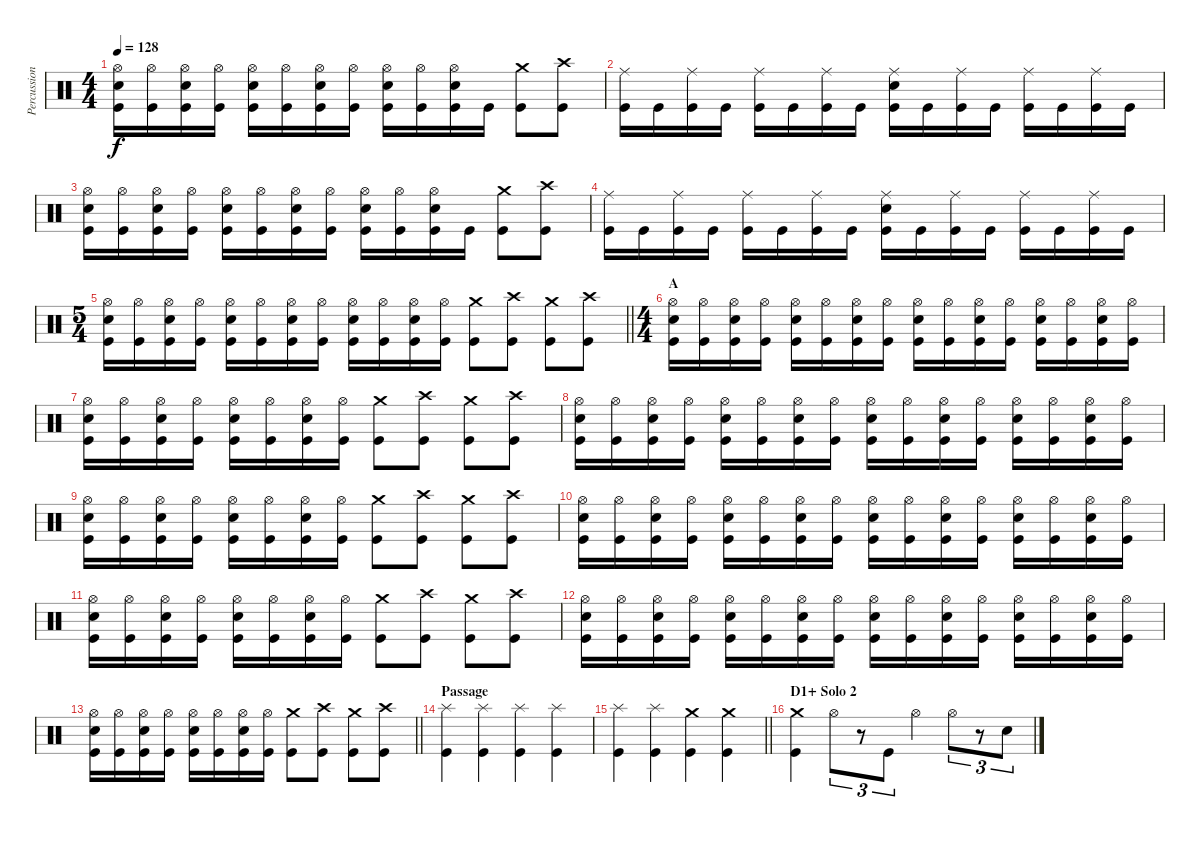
\track ("Percussion" "Percussion") {instrument percussion}
\staff {score}
\articulation defaults
\ts (4 4)
\tempo 128
\clef neutral
\ks c
("Kick (hit)" "Snare (hit) 2" "Hi-Hat (open)").16{dy f} ("Kick (hit)" "Hi-Hat (open)").16 ("Kick (hit)" "Snare (hit) 2" "Hi-Hat (open)").16 ("Kick (hit)" "Hi-Hat (open)").16 ("Kick (hit)" "Snare (hit) 2" "Hi-Hat (open)").16 ("Kick (hit)" "Hi-Hat (open)").16 ("Kick (hit)" "Snare (hit) 2" "Hi-Hat (open)").16 ("Kick (hit)" "Hi-Hat (open)").16 ("Kick (hit)" "Snare (hit) 2" "Hi-Hat (open)").16 ("Kick (hit)" "Hi-Hat (open)").16 ("Kick (hit)" "Snare (hit) 2" "Hi-Hat (open)").16 "Kick (hit)".16 ("Kick (hit)" "Crash medium (hit)").8 ("Kick (hit)" "Crash high (hit)").8 |
("Kick (hit)" "Ride (middle)").16 "Kick (hit)".16 ("Kick (hit)" "Ride (middle)").16 "Kick (hit)".16 ("Kick (hit)" "Ride (middle)").16 "Kick (hit)".16 ("Kick (hit)" "Ride (middle)").16 "Kick (hit)".16 ("Kick (hit)" "Snare (hit) 2" "Ride (middle)").16 "Kick (hit)".16 ("Kick (hit)" "Ride (middle)").16 "Kick (hit)".16 ("Kick (hit)" "Ride (middle)").16 "Kick (hit)".16 ("Kick (hit)" "Ride (middle)").16 "Kick (hit)".16 |
("Kick (hit)" "Snare (hit) 2" "Hi-Hat (open)").16 ("Kick (hit)" "Hi-Hat (open)").16 ("Kick (hit)" "Snare (hit) 2" "Hi-Hat (open)").16 ("Kick (hit)" "Hi-Hat (open)").16 ("Kick (hit)" "Snare (hit) 2" "Hi-Hat (open)").16 ("Kick (hit)" "Hi-Hat (open)").16 ("Kick (hit)" "Snare (hit) 2" "Hi-Hat (open)").16 ("Kick (hit)" "Hi-Hat (open)").16 ("Kick (hit)" "Snare (hit) 2" "Hi-Hat (open)").16 ("Kick (hit)" "Hi-Hat (open)").16 ("Kick (hit)" "Snare (hit) 2" "Hi-Hat (open)").16 "Kick (hit)".16 ("Kick (hit)" "Crash medium (hit)").8 ("Kick (hit)" "Crash high (hit)").8 |
("Kick (hit)" "Ride (middle)").16 "Kick (hit)".16 ("Kick (hit)" "Ride (middle)").16 "Kick (hit)".16 ("Kick (hit)" "Ride (middle)").16 "Kick (hit)".16 ("Kick (hit)" "Ride (middle)").16 "Kick (hit)".16 ("Kick (hit)" "Snare (hit) 2" "Ride (middle)").16 "Kick (hit)".16 ("Kick (hit)" "Ride (middle)").16 "Kick (hit)".16 ("Kick (hit)" "Ride (middle)").16 "Kick (hit)".16 ("Kick (hit)" "Ride (middle)").16 "Kick (hit)".16 |
\ts (5 4)
\barLineRight lightlight
("Kick (hit)" "Snare (hit) 2" "Hi-Hat (open)").16 ("Kick (hit)" "Hi-Hat (open)").16 ("Kick (hit)" "Snare (hit) 2" "Hi-Hat (open)").16 ("Kick (hit)" "Hi-Hat (open)").16 ("Kick (hit)" "Snare (hit) 2" "Hi-Hat (open)").16 ("Kick (hit)" "Hi-Hat (open)").16 ("Kick (hit)" "Snare (hit) 2" "Hi-Hat (open)").16 ("Kick (hit)" "Hi-Hat (open)").16 ("Kick (hit)" "Snare (hit) 2" "Hi-Hat (open)").16 ("Kick (hit)" "Hi-Hat (open)").16 ("Kick (hit)" "Snare (hit) 2" "Hi-Hat (open)").16 ("Kick (hit)" "Hi-Hat (open)").16 ("Kick (hit)" "Crash medium (hit)").8 ("Kick (hit)" "Crash high (hit)").8 ("Kick (hit)" "Crash medium (hit)").8 ("Kick (hit)" "Crash high (hit)").8 |
\ts (4 4)
\section ("" "A")
("Kick (hit)" "Snare (hit) 2" "Hi-Hat (open)").16 ("Kick (hit)" "Hi-Hat (open)").16 ("Kick (hit)" "Snare (hit) 2" "Hi-Hat (open)").16 ("Kick (hit)" "Hi-Hat (open)").16 ("Kick (hit)" "Snare (hit) 2" "Hi-Hat (open)").16 ("Kick (hit)" "Hi-Hat (open)").16 ("Kick (hit)" "Snare (hit) 2" "Hi-Hat (open)").16 ("Kick (hit)" "Hi-Hat (open)").16 ("Kick (hit)" "Snare (hit) 2" "Hi-Hat (open)").16 ("Kick (hit)" "Hi-Hat (open)").16 ("Kick (hit)" "Snare (hit) 2" "Hi-Hat (open)").16 ("Kick (hit)" "Hi-Hat (open)").16 ("Kick (hit)" "Snare (hit) 2" "Hi-Hat (open)").16 ("Kick (hit)" "Hi-Hat (open)").16 ("Kick (hit)" "Snare (hit) 2" "Hi-Hat (open)").16 ("Kick (hit)" "Hi-Hat (open)").16 |
("Kick (hit)" "Snare (hit) 2" "Hi-Hat (open)").16 ("Kick (hit)" "Hi-Hat (open)").16 ("Kick (hit)" "Snare (hit) 2" "Hi-Hat (open)").16 ("Kick (hit)" "Hi-Hat (open)").16 ("Kick (hit)" "Snare (hit) 2" "Hi-Hat (open)").16 ("Kick (hit)" "Hi-Hat (open)").16 ("Kick (hit)" "Snare (hit) 2" "Hi-Hat (open)").16 ("Kick (hit)" "Hi-Hat (open)").16 ("Kick (hit)" "Crash medium (hit)").8 ("Kick (hit)" "Crash high (hit)").8 ("Kick (hit)" "Crash medium (hit)").8 ("Kick (hit)" "Crash high (hit)").8 |
("Kick (hit)" "Snare (hit) 2" "Hi-Hat (open)").16 ("Kick (hit)" "Hi-Hat (open)").16 ("Kick (hit)" "Snare (hit) 2" "Hi-Hat (open)").16 ("Kick (hit)" "Hi-Hat (open)").16 ("Kick (hit)" "Snare (hit) 2" "Hi-Hat (open)").16 ("Kick (hit)" "Hi-Hat (open)").16 ("Kick (hit)" "Snare (hit) 2" "Hi-Hat (open)").16 ("Kick (hit)" "Hi-Hat (open)").16 ("Kick (hit)" "Snare (hit) 2" "Hi-Hat (open)").16 ("Kick (hit)" "Hi-Hat (open)").16 ("Kick (hit)" "Snare (hit) 2" "Hi-Hat (open)").16 ("Kick (hit)" "Hi-Hat (open)").16 ("Kick (hit)" "Snare (hit) 2" "Hi-Hat (open)").16 ("Kick (hit)" "Hi-Hat (open)").16 ("Kick (hit)" "Snare (hit) 2" "Hi-Hat (open)").16 ("Kick (hit)" "Hi-Hat (open)").16 |
("Kick (hit)" "Snare (hit) 2" "Hi-Hat (open)").16 ("Kick (hit)" "Hi-Hat (open)").16 ("Kick (hit)" "Snare (hit) 2" "Hi-Hat (open)").16 ("Kick (hit)" "Hi-Hat (open)").16 ("Kick (hit)" "Snare (hit) 2" "Hi-Hat (open)").16 ("Kick (hit)" "Hi-Hat (open)").16 ("Kick (hit)" "Snare (hit) 2" "Hi-Hat (open)").16 ("Kick (hit)" "Hi-Hat (open)").16 ("Kick (hit)" "Crash medium (hit)").8 ("Kick (hit)" "Crash high (hit)").8 ("Kick (hit)" "Crash medium (hit)").8 ("Kick (hit)" "Crash high (hit)").8 |
("Kick (hit)" "Snare (hit) 2" "Hi-Hat (open)").16 ("Kick (hit)" "Hi-Hat (open)").16 ("Kick (hit)" "Snare (hit) 2" "Hi-Hat (open)").16 ("Kick (hit)" "Hi-Hat (open)").16 ("Kick (hit)" "Snare (hit) 2" "Hi-Hat (open)").16 ("Kick (hit)" "Hi-Hat (open)").16 ("Kick (hit)" "Snare (hit) 2" "Hi-Hat (open)").16 ("Kick (hit)" "Hi-Hat (open)").16 ("Kick (hit)" "Snare (hit) 2" "Hi-Hat (open)").16 ("Kick (hit)" "Hi-Hat (open)").16 ("Kick (hit)" "Snare (hit) 2" "Hi-Hat (open)").16 ("Kick (hit)" "Hi-Hat (open)").16 ("Kick (hit)" "Snare (hit) 2" "Hi-Hat (open)").16 ("Kick (hit)" "Hi-Hat (open)").16 ("Kick (hit)" "Snare (hit) 2" "Hi-Hat (open)").16 ("Kick (hit)" "Hi-Hat (open)").16 |
("Kick (hit)" "Snare (hit) 2" "Hi-Hat (open)").16 ("Kick (hit)" "Hi-Hat (open)").16 ("Kick (hit)" "Snare (hit) 2" "Hi-Hat (open)").16 ("Kick (hit)" "Hi-Hat (open)").16 ("Kick (hit)" "Snare (hit) 2" "Hi-Hat (open)").16 ("Kick (hit)" "Hi-Hat (open)").16 ("Kick (hit)" "Snare (hit) 2" "Hi-Hat (open)").16 ("Kick (hit)" "Hi-Hat (open)").16 ("Kick (hit)" "Crash medium (hit)").8 ("Kick (hit)" "Crash high (hit)").8 ("Kick (hit)" "Crash medium (hit)").8 ("Kick (hit)" "Crash high (hit)").8 |
("Kick (hit)" "Snare (hit) 2" "Hi-Hat (open)").16 ("Kick (hit)" "Hi-Hat (open)").16 ("Kick (hit)" "Snare (hit) 2" "Hi-Hat (open)").16 ("Kick (hit)" "Hi-Hat (open)").16 ("Kick (hit)" "Snare (hit) 2" "Hi-Hat (open)").16 ("Kick (hit)" "Hi-Hat (open)").16 ("Kick (hit)" "Snare (hit) 2" "Hi-Hat (open)").16 ("Kick (hit)" "Hi-Hat (open)").16 ("Kick (hit)" "Snare (hit) 2" "Hi-Hat (open)").16 ("Kick (hit)" "Hi-Hat (open)").16 ("Kick (hit)" "Snare (hit) 2" "Hi-Hat (open)").16 ("Kick (hit)" "Hi-Hat (open)").16 ("Kick (hit)" "Snare (hit) 2" "Hi-Hat (open)").16 ("Kick (hit)" "Hi-Hat (open)").16 ("Kick (hit)" "Snare (hit) 2" "Hi-Hat (open)").16 ("Kick (hit)" "Hi-Hat (open)").16 |
\barLineRight lightlight
("Kick (hit)" "Snare (hit) 2" "Hi-Hat (open)").16 ("Kick (hit)" "Hi-Hat (open)").16 ("Kick (hit)" "Snare (hit) 2" "Hi-Hat (open)").16 ("Kick (hit)" "Hi-Hat (open)").16 ("Kick (hit)" "Snare (hit) 2" "Hi-Hat (open)").16 ("Kick (hit)" "Hi-Hat (open)").16 ("Kick (hit)" "Snare (hit) 2" "Hi-Hat (open)").16 ("Kick (hit)" "Hi-Hat (open)").16 ("Kick (hit)" "Crash medium (hit)").8 ("Kick (hit)" "Crash high (hit)").8 ("Kick (hit)" "Crash medium (hit)").8 ("Kick (hit)" "Crash high (hit)").8 |
\section ("" "Passage")
("Kick (hit)" "Splash (hit)").4 ("Kick (hit)" "Splash (hit)").4 ("Kick (hit)" "Splash (hit)").4 ("Kick (hit)" "Splash (hit)").4 |
\barLineRight lightlight
("Kick (hit)" "Splash (hit)").4 ("Kick (hit)" "Splash (hit)").4 ("Kick (hit)" "Crash medium (hit)").4 ("Kick (hit)" "Crash medium (hit)").4 |
\section ("" "D1+ Solo 2")
("Kick (hit)" "Crash medium (hit)").4 "Hi-Hat (open)".8{tu (3 2)} r.8{tu (3 2)} "Kick (hit)".8{tu (3 2)} "Hi-Hat (open)".4 "Hi-Hat (open)".8{tu (3 2)} r.8{tu (3 2)} "Snare (hit) 2".8{tu (3 2)}
